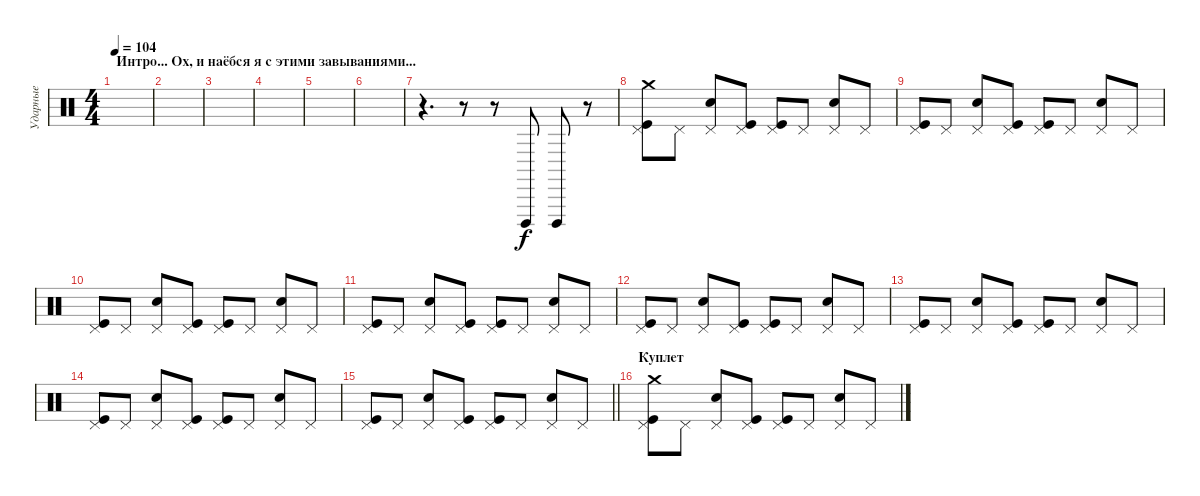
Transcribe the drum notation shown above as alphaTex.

\track ("Ударные" "Ударные") {instrument percussion}
\staff {score}
\articulation defaults
\ts (4 4)
\section ("" "Интро... Ох, и наёбся я с этими завываниями...")
\tempo 104
\clef neutral
\ks c
|
|
|
|
|
|
r.4{d} r.8 r.8 "Cuica (open)".8 "Cuica (open)".8 r.8 |
("Pedal Hi-Hat (hit)" "Kick (hit)" "Crash medium (hit)").8 "Pedal Hi-Hat (hit)".8 ("Pedal Hi-Hat (hit)" "Snare (hit) 2").8 ("Pedal Hi-Hat (hit)" "Kick (hit)").8 ("Pedal Hi-Hat (hit)" "Kick (hit)").8 "Pedal Hi-Hat (hit)".8 ("Pedal Hi-Hat (hit)" "Snare (hit) 2").8 "Pedal Hi-Hat (hit)".8 |
("Pedal Hi-Hat (hit)" "Kick (hit)").8 "Pedal Hi-Hat (hit)".8 ("Pedal Hi-Hat (hit)" "Snare (hit) 2").8 ("Pedal Hi-Hat (hit)" "Kick (hit)").8 ("Pedal Hi-Hat (hit)" "Kick (hit)").8 "Pedal Hi-Hat (hit)".8 ("Pedal Hi-Hat (hit)" "Snare (hit) 2").8 "Pedal Hi-Hat (hit)".8 |
("Pedal Hi-Hat (hit)" "Kick (hit)").8 "Pedal Hi-Hat (hit)".8 ("Pedal Hi-Hat (hit)" "Snare (hit) 2").8 ("Pedal Hi-Hat (hit)" "Kick (hit)").8 ("Pedal Hi-Hat (hit)" "Kick (hit)").8 "Pedal Hi-Hat (hit)".8 ("Pedal Hi-Hat (hit)" "Snare (hit) 2").8 "Pedal Hi-Hat (hit)".8 |
("Pedal Hi-Hat (hit)" "Kick (hit)").8 "Pedal Hi-Hat (hit)".8 ("Pedal Hi-Hat (hit)" "Snare (hit) 2").8 ("Pedal Hi-Hat (hit)" "Kick (hit)").8 ("Pedal Hi-Hat (hit)" "Kick (hit)").8 "Pedal Hi-Hat (hit)".8 ("Pedal Hi-Hat (hit)" "Snare (hit) 2").8 "Pedal Hi-Hat (hit)".8 |
("Pedal Hi-Hat (hit)" "Kick (hit)").8 "Pedal Hi-Hat (hit)".8 ("Pedal Hi-Hat (hit)" "Snare (hit) 2").8 ("Pedal Hi-Hat (hit)" "Kick (hit)").8 ("Pedal Hi-Hat (hit)" "Kick (hit)").8 "Pedal Hi-Hat (hit)".8 ("Pedal Hi-Hat (hit)" "Snare (hit) 2").8 "Pedal Hi-Hat (hit)".8 |
("Pedal Hi-Hat (hit)" "Kick (hit)").8 "Pedal Hi-Hat (hit)".8 ("Pedal Hi-Hat (hit)" "Snare (hit) 2").8 ("Pedal Hi-Hat (hit)" "Kick (hit)").8 ("Pedal Hi-Hat (hit)" "Kick (hit)").8 "Pedal Hi-Hat (hit)".8 ("Pedal Hi-Hat (hit)" "Snare (hit) 2").8 "Pedal Hi-Hat (hit)".8 |
("Pedal Hi-Hat (hit)" "Kick (hit)").8 "Pedal Hi-Hat (hit)".8 ("Pedal Hi-Hat (hit)" "Snare (hit) 2").8 ("Pedal Hi-Hat (hit)" "Kick (hit)").8 ("Pedal Hi-Hat (hit)" "Kick (hit)").8 "Pedal Hi-Hat (hit)".8 ("Pedal Hi-Hat (hit)" "Snare (hit) 2").8 "Pedal Hi-Hat (hit)".8 |
\barLineRight lightlight
("Pedal Hi-Hat (hit)" "Kick (hit)").8 "Pedal Hi-Hat (hit)".8 ("Pedal Hi-Hat (hit)" "Snare (hit) 2").8 ("Pedal Hi-Hat (hit)" "Kick (hit)").8 ("Pedal Hi-Hat (hit)" "Kick (hit)").8 "Pedal Hi-Hat (hit)".8 ("Pedal Hi-Hat (hit)" "Snare (hit) 2").8 "Pedal Hi-Hat (hit)".8 |
\section ("" "Куплет")
("Pedal Hi-Hat (hit)" "Kick (hit)" "Crash medium (hit)").8 "Pedal Hi-Hat (hit)".8 ("Pedal Hi-Hat (hit)" "Snare (hit) 2").8 ("Pedal Hi-Hat (hit)" "Kick (hit)").8 ("Pedal Hi-Hat (hit)" "Kick (hit)").8 "Pedal Hi-Hat (hit)".8 ("Pedal Hi-Hat (hit)" "Snare (hit) 2").8 "Pedal Hi-Hat (hit)".8
